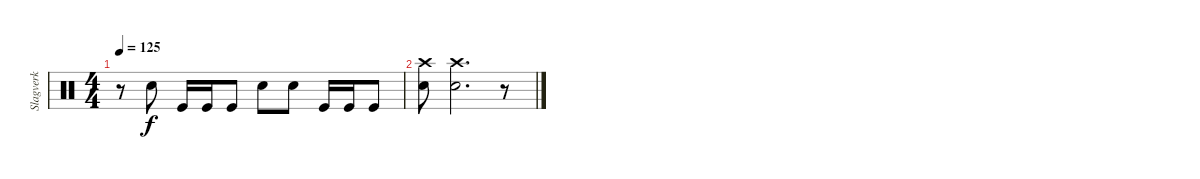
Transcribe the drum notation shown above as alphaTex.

\track ("Slagverk" "Slagverk") {instrument percussion}
\staff {score}
\articulation defaults
\ts (4 4)
\tempo 125
\clef neutral
\ks c
r.8{dy f} "Snare (hit) 2".8 "Kick (hit)".16 "Kick (hit)".16 "Kick (hit)".8 "Snare (hit) 2".8 "Snare (hit) 2".8 "Kick (hit)".16 "Kick (hit)".16 "Kick (hit)".8 |
("Crash high (hit)" "Snare (hit) 2").8 ("Crash high (hit)" "Snare (hit) 2").2{d} r.8
